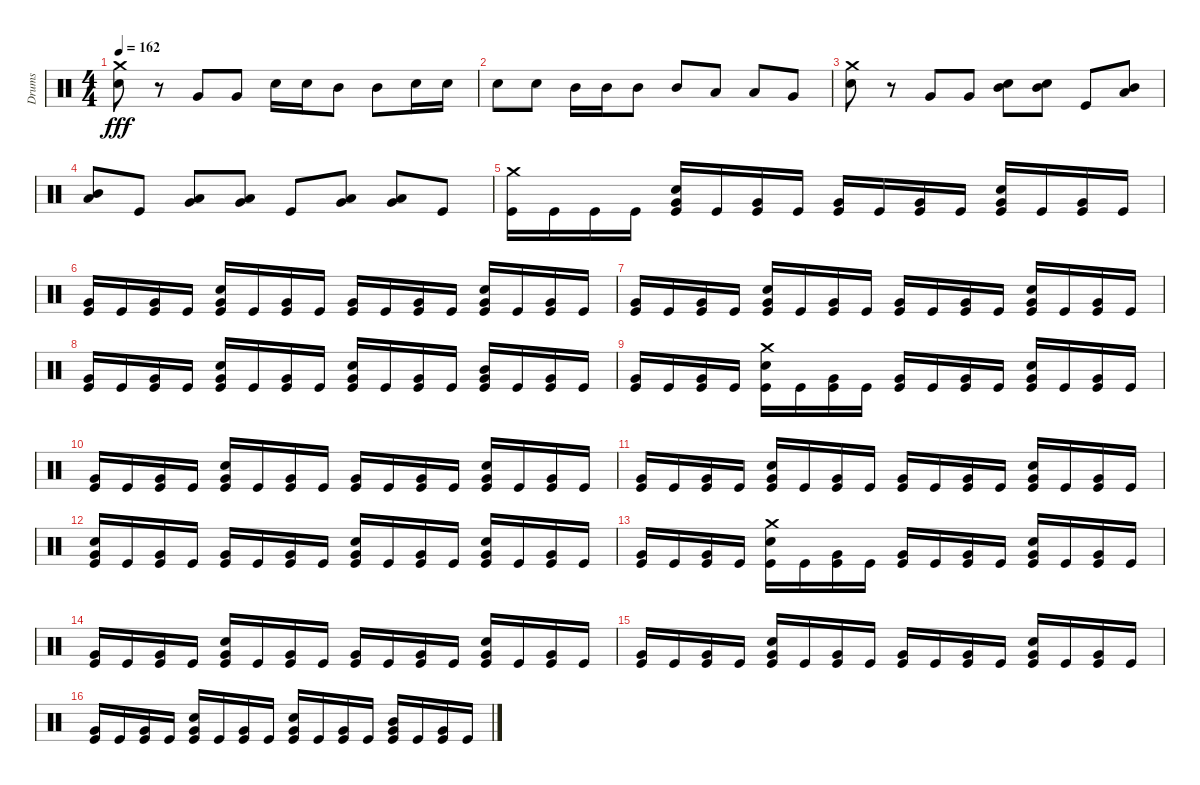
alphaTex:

\track ("Drums" "Drums") {instrument percussion}
\staff {score}
\articulation defaults
\ts (4 4)
\tempo 162
\clef neutral
\ks c
("Crash medium (hit)" "Snare (hit) 2").8{dy fff} r.8 "Very Low Tom (hit)".8 "Very Low Tom (hit)".8 "Snare (hit) 2".16 "Snare (hit) 2".16 "Mid Tom (hit)".8 "Mid Tom (hit)".8 "Snare (hit) 2".16 "Snare (hit) 2".16 |
"Snare (hit) 2".8 "Snare (hit) 2".8 "Mid Tom (hit)".16 "Mid Tom (hit)".16 "Mid Tom (hit)".8 "Mid Tom (hit)".8 "Low Tom (hit)".8 "Low Tom (hit)".8 "Very Low Tom (hit)".8 |
("Crash medium (hit)" "Snare (hit) 2").8 r.8 "Very Low Tom (hit)".8 "Very Low Tom (hit)".8 ("Mid Tom (hit)" "Snare (hit) 2").8 ("Mid Tom (hit)" "Snare (hit) 2").8 "Kick (hit)".8 ("Mid Tom (hit)" "Low Tom (hit)").8 |
("Mid Tom (hit)" "Low Tom (hit)").8 "Kick (hit)".8 ("Low Tom (hit)" "Very Low Tom (hit)").8 ("Low Tom (hit)" "Very Low Tom (hit)").8 "Kick (hit)".8 ("Low Floor Tom (hit)" "Very Low Tom (hit)").8 ("Low Floor Tom (hit)" "Very Low Tom (hit)").8 "Kick (hit)".8 |
("Crash medium (hit)" "Kick (hit)").16 "Kick (hit)".16 "Kick (hit)".16 "Kick (hit)".16 ("Snare (hit) 2" "Very Low Tom (hit)" "Kick (hit)").16 "Kick (hit)".16 ("Very Low Tom (hit)" "Kick (hit)").16 "Kick (hit)".16 ("Very Low Tom (hit)" "Kick (hit)").16 "Kick (hit)".16 ("Very Low Tom (hit)" "Kick (hit)").16 "Kick (hit)".16 ("Snare (hit) 2" "Very Low Tom (hit)" "Kick (hit)").16 "Kick (hit)".16 ("Very Low Tom (hit)" "Kick (hit)").16 "Kick (hit)".16 |
("Very Low Tom (hit)" "Kick (hit)").16 "Kick (hit)".16 ("Very Low Tom (hit)" "Kick (hit)").16 "Kick (hit)".16 ("Snare (hit) 2" "Very Low Tom (hit)" "Kick (hit)").16 "Kick (hit)".16 ("Very Low Tom (hit)" "Kick (hit)").16 "Kick (hit)".16 ("Very Low Tom (hit)" "Kick (hit)").16 "Kick (hit)".16 ("Very Low Tom (hit)" "Kick (hit)").16 "Kick (hit)".16 ("Snare (hit) 2" "Very Low Tom (hit)" "Kick (hit)").16 "Kick (hit)".16 ("Very Low Tom (hit)" "Kick (hit)").16 "Kick (hit)".16 |
("Very Low Tom (hit)" "Kick (hit)").16 "Kick (hit)".16 ("Very Low Tom (hit)" "Kick (hit)").16 "Kick (hit)".16 ("Snare (hit) 2" "Very Low Tom (hit)" "Kick (hit)").16 "Kick (hit)".16 ("Very Low Tom (hit)" "Kick (hit)").16 "Kick (hit)".16 ("Very Low Tom (hit)" "Kick (hit)").16 "Kick (hit)".16 ("Very Low Tom (hit)" "Kick (hit)").16 "Kick (hit)".16 ("Snare (hit) 2" "Very Low Tom (hit)" "Kick (hit)").16 "Kick (hit)".16 ("Very Low Tom (hit)" "Kick (hit)").16 "Kick (hit)".16 |
("Very Low Tom (hit)" "Kick (hit)").16 "Kick (hit)".16 ("Very Low Tom (hit)" "Kick (hit)").16 "Kick (hit)".16 ("Snare (hit) 2" "Very Low Tom (hit)" "Kick (hit)").16 "Kick (hit)".16 ("Very Low Tom (hit)" "Kick (hit)").16 "Kick (hit)".16 ("Snare (hit) 2" "Very Low Tom (hit)" "Kick (hit)").16 "Kick (hit)".16 ("Very Low Tom (hit)" "Kick (hit)").16 "Kick (hit)".16 ("Mid Tom (hit)" "Very Low Tom (hit)" "Kick (hit)").16 "Kick (hit)".16 ("Very Low Tom (hit)" "Kick (hit)").16 "Kick (hit)".16 |
("Very Low Tom (hit)" "Kick (hit)").16 "Kick (hit)".16 ("Very Low Tom (hit)" "Kick (hit)").16 "Kick (hit)".16 ("Crash medium (hit)" "Snare (hit) 2" "Kick (hit)").16 "Kick (hit)".16 ("Very Low Tom (hit)" "Kick (hit)").16 "Kick (hit)".16 ("Very Low Tom (hit)" "Kick (hit)").16 "Kick (hit)".16 ("Very Low Tom (hit)" "Kick (hit)").16 "Kick (hit)".16 ("Snare (hit) 2" "Very Low Tom (hit)" "Kick (hit)").16 "Kick (hit)".16 ("Very Low Tom (hit)" "Kick (hit)").16 "Kick (hit)".16 |
("Very Low Tom (hit)" "Kick (hit)").16 "Kick (hit)".16 ("Very Low Tom (hit)" "Kick (hit)").16 "Kick (hit)".16 ("Snare (hit) 2" "Very Low Tom (hit)" "Kick (hit)").16 "Kick (hit)".16 ("Very Low Tom (hit)" "Kick (hit)").16 "Kick (hit)".16 ("Very Low Tom (hit)" "Kick (hit)").16 "Kick (hit)".16 ("Very Low Tom (hit)" "Kick (hit)").16 "Kick (hit)".16 ("Snare (hit) 2" "Very Low Tom (hit)" "Kick (hit)").16 "Kick (hit)".16 ("Very Low Tom (hit)" "Kick (hit)").16 "Kick (hit)".16 |
("Very Low Tom (hit)" "Kick (hit)").16 "Kick (hit)".16 ("Very Low Tom (hit)" "Kick (hit)").16 "Kick (hit)".16 ("Snare (hit) 2" "Very Low Tom (hit)" "Kick (hit)").16 "Kick (hit)".16 ("Very Low Tom (hit)" "Kick (hit)").16 "Kick (hit)".16 ("Very Low Tom (hit)" "Kick (hit)").16 "Kick (hit)".16 ("Very Low Tom (hit)" "Kick (hit)").16 "Kick (hit)".16 ("Snare (hit) 2" "Very Low Tom (hit)" "Kick (hit)").16 "Kick (hit)".16 ("Very Low Tom (hit)" "Kick (hit)").16 "Kick (hit)".16 |
("Snare (hit) 2" "Very Low Tom (hit)" "Kick (hit)").16 "Kick (hit)".16 ("Very Low Tom (hit)" "Kick (hit)").16 "Kick (hit)".16 ("Very Low Tom (hit)" "Kick (hit)").16 "Kick (hit)".16 ("Very Low Tom (hit)" "Kick (hit)").16 "Kick (hit)".16 ("Snare (hit) 2" "Very Low Tom (hit)" "Kick (hit)").16 "Kick (hit)".16 ("Very Low Tom (hit)" "Kick (hit)").16 "Kick (hit)".16 ("Snare (hit) 2" "Very Low Tom (hit)" "Kick (hit)").16 "Kick (hit)".16 ("Very Low Tom (hit)" "Kick (hit)").16 "Kick (hit)".16 |
("Very Low Tom (hit)" "Kick (hit)").16 "Kick (hit)".16 ("Very Low Tom (hit)" "Kick (hit)").16 "Kick (hit)".16 ("Crash medium (hit)" "Snare (hit) 2" "Kick (hit)").16 "Kick (hit)".16 ("Very Low Tom (hit)" "Kick (hit)").16 "Kick (hit)".16 ("Very Low Tom (hit)" "Kick (hit)").16 "Kick (hit)".16 ("Very Low Tom (hit)" "Kick (hit)").16 "Kick (hit)".16 ("Snare (hit) 2" "Very Low Tom (hit)" "Kick (hit)").16 "Kick (hit)".16 ("Very Low Tom (hit)" "Kick (hit)").16 "Kick (hit)".16 |
("Very Low Tom (hit)" "Kick (hit)").16 "Kick (hit)".16 ("Very Low Tom (hit)" "Kick (hit)").16 "Kick (hit)".16 ("Snare (hit) 2" "Very Low Tom (hit)" "Kick (hit)").16 "Kick (hit)".16 ("Very Low Tom (hit)" "Kick (hit)").16 "Kick (hit)".16 ("Very Low Tom (hit)" "Kick (hit)").16 "Kick (hit)".16 ("Very Low Tom (hit)" "Kick (hit)").16 "Kick (hit)".16 ("Snare (hit) 2" "Very Low Tom (hit)" "Kick (hit)").16 "Kick (hit)".16 ("Very Low Tom (hit)" "Kick (hit)").16 "Kick (hit)".16 |
("Very Low Tom (hit)" "Kick (hit)").16 "Kick (hit)".16 ("Very Low Tom (hit)" "Kick (hit)").16 "Kick (hit)".16 ("Snare (hit) 2" "Very Low Tom (hit)" "Kick (hit)").16 "Kick (hit)".16 ("Very Low Tom (hit)" "Kick (hit)").16 "Kick (hit)".16 ("Very Low Tom (hit)" "Kick (hit)").16 "Kick (hit)".16 ("Very Low Tom (hit)" "Kick (hit)").16 "Kick (hit)".16 ("Snare (hit) 2" "Very Low Tom (hit)" "Kick (hit)").16 "Kick (hit)".16 ("Very Low Tom (hit)" "Kick (hit)").16 "Kick (hit)".16 |
("Very Low Tom (hit)" "Kick (hit)").16 "Kick (hit)".16 ("Very Low Tom (hit)" "Kick (hit)").16 "Kick (hit)".16 ("Snare (hit) 2" "Very Low Tom (hit)" "Kick (hit)").16 "Kick (hit)".16 ("Very Low Tom (hit)" "Kick (hit)").16 "Kick (hit)".16 ("Snare (hit) 2" "Very Low Tom (hit)" "Kick (hit)").16 "Kick (hit)".16 ("Very Low Tom (hit)" "Kick (hit)").16 "Kick (hit)".16 ("Mid Tom (hit)" "Very Low Tom (hit)" "Kick (hit)").16 "Kick (hit)".16 ("Very Low Tom (hit)" "Kick (hit)").16 "Kick (hit)".16
